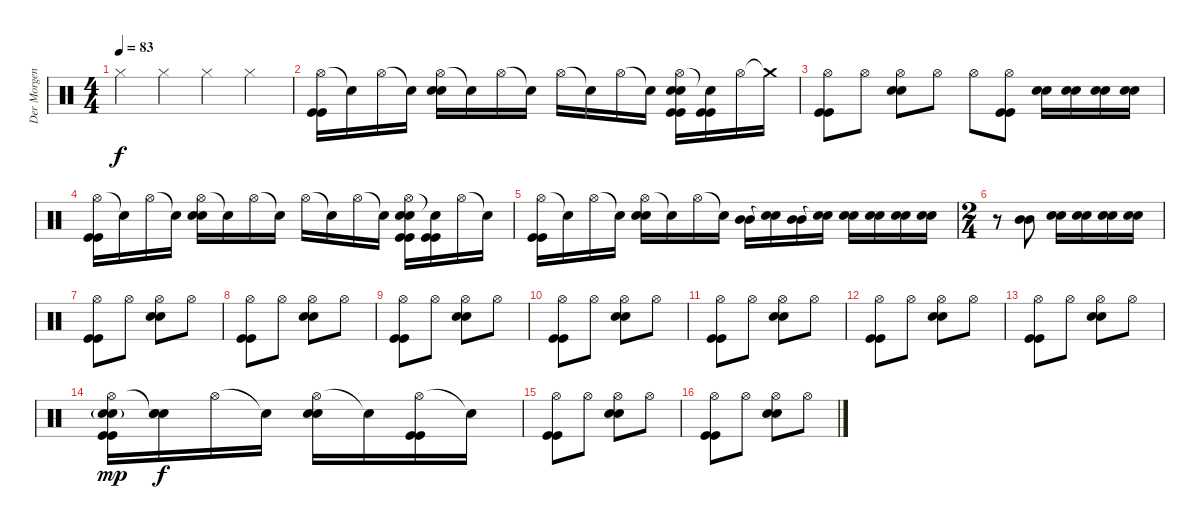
\track ("Der Morgenstern" "Der Morgen") {instrument percussion}
\staff {score}
\articulation defaults
\ts (4 4)
\tempo 83
\clef neutral
\ks c "Hi-Hat (closed)".4{dy f} "Hi-Hat (closed)".4 "Hi-Hat (closed)".4 "Hi-Hat (closed)".4
|
("Hi-Hat (open)" "Kick (hit)" "Kick (hit)").16 "Snare (hit)"{t}.16 "Hi-Hat (open)".16 "Snare (hit)"{t}.16 ("Hi-Hat (open)" "Electric Snare (hit)" "Electric Snare (hit)").16 "Snare (hit)"{t}.16 "Hi-Hat (open)".16 "Snare (hit)"{t}.16 "Hi-Hat (open)".16 "Snare (hit)"{t}.16 "Hi-Hat (open)".16 "Snare (hit)"{t}.16 ("Hi-Hat (open)" "Electric Snare (hit)" "Electric Snare (hit)" "Kick (hit)" "Kick (hit)").16 ("Snare (hit)"{t} "Kick (hit)" "Kick (hit)").16 "Hi-Hat (open)".16 "Crash medium (hit)"{t}.16 |
("Hi-Hat (open)" "Kick (hit)" "Kick (hit)").8 "Hi-Hat (open)".8 ("Hi-Hat (open)" "Electric Snare (hit)" "Electric Snare (hit)").8 "Hi-Hat (open)".8 "Hi-Hat (open)".8 ("Hi-Hat (open)" "Kick (hit)" "Kick (hit)").8 ("Electric Snare (hit)" "Electric Snare (hit)").16 ("Electric Snare (hit)" "Electric Snare (hit)").16 ("Electric Snare (hit)" "Electric Snare (hit)").16 ("Electric Snare (hit)" "Electric Snare (hit)").16 |
("Hi-Hat (open)" "Kick (hit)" "Kick (hit)").16 "Snare (hit)"{t}.16 "Hi-Hat (open)".16 "Snare (hit)"{t}.16 ("Hi-Hat (open)" "Electric Snare (hit)" "Electric Snare (hit)").16 "Snare (hit)"{t}.16 "Hi-Hat (open)".16 "Snare (hit)"{t}.16 "Hi-Hat (open)".16 "Snare (hit)"{t}.16 "Hi-Hat (open)".16 "Snare (hit)"{t}.16 ("Hi-Hat (open)" "Electric Snare (hit)" "Electric Snare (hit)" "Kick (hit)" "Kick (hit)").16 ("Snare (hit)"{t} "Kick (hit)" "Kick (hit)").16 "Hi-Hat (open)".16 "Snare (hit)"{t}.16 |
("Hi-Hat (open)" "Kick (hit)" "Kick (hit)").16 "Snare (hit)"{t}.16 "Hi-Hat (open)".16 "Snare (hit)"{t}.16 ("Hi-Hat (open)" "Electric Snare (hit)" "Electric Snare (hit)").16 "Snare (hit)"{t}.16 "Hi-Hat (open)".16 "Snare (hit)"{t}.16 ("Mid Tom (hit)" "Mid Tom (hit)").16 ("Snare (hit)"{t} "Snare (hit)"{t}).16 ("Mid Tom (hit)" "Mid Tom (hit)").16 ("Snare (hit)"{t} "Snare (hit)"{t}).16 ("Electric Snare (hit)" "Electric Snare (hit)").16 ("Electric Snare (hit)" "Electric Snare (hit)").16 ("Electric Snare (hit)" "Electric Snare (hit)").16 ("Electric Snare (hit)" "Electric Snare (hit)").16 |
\ts (2 4)
r.8 ("Mid Tom (hit)" "Mid Tom (hit)").8 ("Electric Snare (hit)" "Electric Snare (hit)").16 ("Electric Snare (hit)" "Electric Snare (hit)").16 ("Electric Snare (hit)" "Electric Snare (hit)").16 ("Electric Snare (hit)" "Electric Snare (hit)").16 |
("Hi-Hat (open)" "Kick (hit)" "Kick (hit)").8 "Hi-Hat (open)".8 ("Hi-Hat (open)" "Electric Snare (hit)" "Electric Snare (hit)").8 "Hi-Hat (open)".8 |
("Hi-Hat (open)" "Kick (hit)" "Kick (hit)").8 "Hi-Hat (open)".8 ("Hi-Hat (open)" "Electric Snare (hit)" "Electric Snare (hit)").8 "Hi-Hat (open)".8 |
("Hi-Hat (open)" "Kick (hit)" "Kick (hit)").8 "Hi-Hat (open)".8 ("Hi-Hat (open)" "Electric Snare (hit)" "Electric Snare (hit)").8 "Hi-Hat (open)".8 |
("Hi-Hat (open)" "Kick (hit)" "Kick (hit)").8 "Hi-Hat (open)".8 ("Hi-Hat (open)" "Electric Snare (hit)" "Electric Snare (hit)").8 "Hi-Hat (open)".8 |
("Hi-Hat (open)" "Kick (hit)" "Kick (hit)").8 "Hi-Hat (open)".8 ("Hi-Hat (open)" "Electric Snare (hit)" "Electric Snare (hit)").8 "Hi-Hat (open)".8 |
("Hi-Hat (open)" "Kick (hit)" "Kick (hit)").8 "Hi-Hat (open)".8 ("Hi-Hat (open)" "Electric Snare (hit)" "Electric Snare (hit)").8 "Hi-Hat (open)".8 |
("Hi-Hat (open)" "Kick (hit)" "Kick (hit)").8 "Hi-Hat (open)".8 ("Hi-Hat (open)" "Electric Snare (hit)" "Electric Snare (hit)").8 "Hi-Hat (open)".8 |
("Hi-Hat (open)" "Electric Snare (hit)"{g} "Electric Snare (hit)"{g} "Kick (hit)" "Kick (hit)").16{dy mp} ("Snare (hit)"{t} "Electric Snare (hit)" "Electric Snare (hit)").16{dy f} "Hi-Hat (open)".16 "Snare (hit)"{t}.16 ("Hi-Hat (open)" "Electric Snare (hit)" "Electric Snare (hit)").16 "Snare (hit)"{t}.16 ("Hi-Hat (open)" "Kick (hit)" "Kick (hit)").16 "Snare (hit)"{t}.16 |
("Hi-Hat (open)" "Kick (hit)" "Kick (hit)").8 "Hi-Hat (open)".8 ("Hi-Hat (open)" "Electric Snare (hit)" "Electric Snare (hit)").8 "Hi-Hat (open)".8 |
("Hi-Hat (open)" "Kick (hit)" "Kick (hit)").8 "Hi-Hat (open)".8 ("Hi-Hat (open)" "Electric Snare (hit)" "Electric Snare (hit)").8 "Hi-Hat (open)".8
